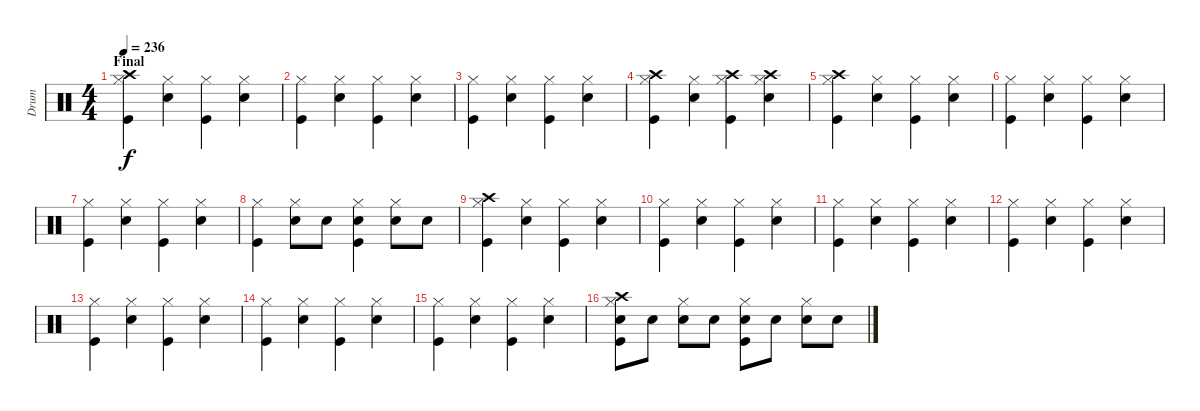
\track ("Drum" "Drum") {instrument percussion}
\staff {score}
\articulation defaults
\ts (4 4)
\section ("" "Final")
\tempo 236
\clef neutral
\ks c
("Crash high (hit)" "Hi-Hat (closed)" "Kick (hit)").4{dy f} ("Hi-Hat (closed)" "Snare (hit) 2").4 ("Hi-Hat (closed)" "Kick (hit)").4 ("Hi-Hat (closed)" "Snare (hit) 2").4 |
("Hi-Hat (closed)" "Kick (hit)").4 ("Hi-Hat (closed)" "Snare (hit) 2").4 ("Hi-Hat (closed)" "Kick (hit)").4 ("Hi-Hat (closed)" "Snare (hit) 2").4 |
("Hi-Hat (closed)" "Kick (hit)").4 ("Hi-Hat (closed)" "Snare (hit) 2").4 ("Hi-Hat (closed)" "Kick (hit)").4 ("Hi-Hat (closed)" "Snare (hit) 2").4 |
("Crash high (hit)" "Hi-Hat (closed)" "Kick (hit)").4 ("Hi-Hat (closed)" "Snare (hit) 2").4 ("Crash high (hit)" "Hi-Hat (closed)" "Kick (hit)").4 ("Crash high (hit)" "Hi-Hat (closed)" "Snare (hit) 2").4 |
("Crash high (hit)" "Hi-Hat (closed)" "Kick (hit)").4 ("Hi-Hat (closed)" "Snare (hit) 2").4 ("Hi-Hat (closed)" "Kick (hit)").4 ("Hi-Hat (closed)" "Snare (hit) 2").4 |
("Hi-Hat (closed)" "Kick (hit)").4 ("Hi-Hat (closed)" "Snare (hit) 2").4 ("Hi-Hat (closed)" "Kick (hit)").4 ("Hi-Hat (closed)" "Snare (hit) 2").4 |
("Hi-Hat (closed)" "Kick (hit)").4 ("Hi-Hat (closed)" "Snare (hit) 2").4 ("Hi-Hat (closed)" "Kick (hit)").4 ("Hi-Hat (closed)" "Snare (hit) 2").4 |
("Hi-Hat (closed)" "Kick (hit)").4 ("Hi-Hat (closed)" "Snare (hit) 2").8 "Snare (hit) 2".8 ("Hi-Hat (closed)" "Snare (hit) 2" "Kick (hit)").4 ("Hi-Hat (closed)" "Snare (hit) 2").8 "Snare (hit) 2".8 |
("Crash high (hit)" "Hi-Hat (closed)" "Kick (hit)").4 ("Hi-Hat (closed)" "Snare (hit) 2").4 ("Hi-Hat (closed)" "Kick (hit)").4 ("Hi-Hat (closed)" "Snare (hit) 2").4 |
("Hi-Hat (closed)" "Kick (hit)").4 ("Hi-Hat (closed)" "Snare (hit) 2").4 ("Hi-Hat (closed)" "Kick (hit)").4 ("Hi-Hat (closed)" "Snare (hit) 2").4 |
("Hi-Hat (closed)" "Kick (hit)").4 ("Hi-Hat (closed)" "Snare (hit) 2").4 ("Hi-Hat (closed)" "Kick (hit)").4 ("Hi-Hat (closed)" "Snare (hit) 2").4 |
("Hi-Hat (closed)" "Kick (hit)").4 ("Hi-Hat (closed)" "Snare (hit) 2").4 ("Hi-Hat (closed)" "Kick (hit)").4 ("Hi-Hat (closed)" "Snare (hit) 2").4 |
("Hi-Hat (closed)" "Kick (hit)").4 ("Hi-Hat (closed)" "Snare (hit) 2").4 ("Hi-Hat (closed)" "Kick (hit)").4 ("Hi-Hat (closed)" "Snare (hit) 2").4 |
("Hi-Hat (closed)" "Kick (hit)").4 ("Hi-Hat (closed)" "Snare (hit) 2").4 ("Hi-Hat (closed)" "Kick (hit)").4 ("Hi-Hat (closed)" "Snare (hit) 2").4 |
("Hi-Hat (closed)" "Kick (hit)").4 ("Hi-Hat (closed)" "Snare (hit) 2").4 ("Hi-Hat (closed)" "Kick (hit)").4 ("Hi-Hat (closed)" "Snare (hit) 2").4 |
("Crash high (hit)" "Hi-Hat (closed)" "Snare (hit) 2" "Kick (hit)").8 "Snare (hit) 2".8 ("Hi-Hat (closed)" "Snare (hit) 2").8 "Snare (hit) 2".8 ("Hi-Hat (closed)" "Snare (hit) 2" "Kick (hit)").8 "Snare (hit) 2".8 ("Hi-Hat (closed)" "Snare (hit) 2").8 "Snare (hit) 2".8
